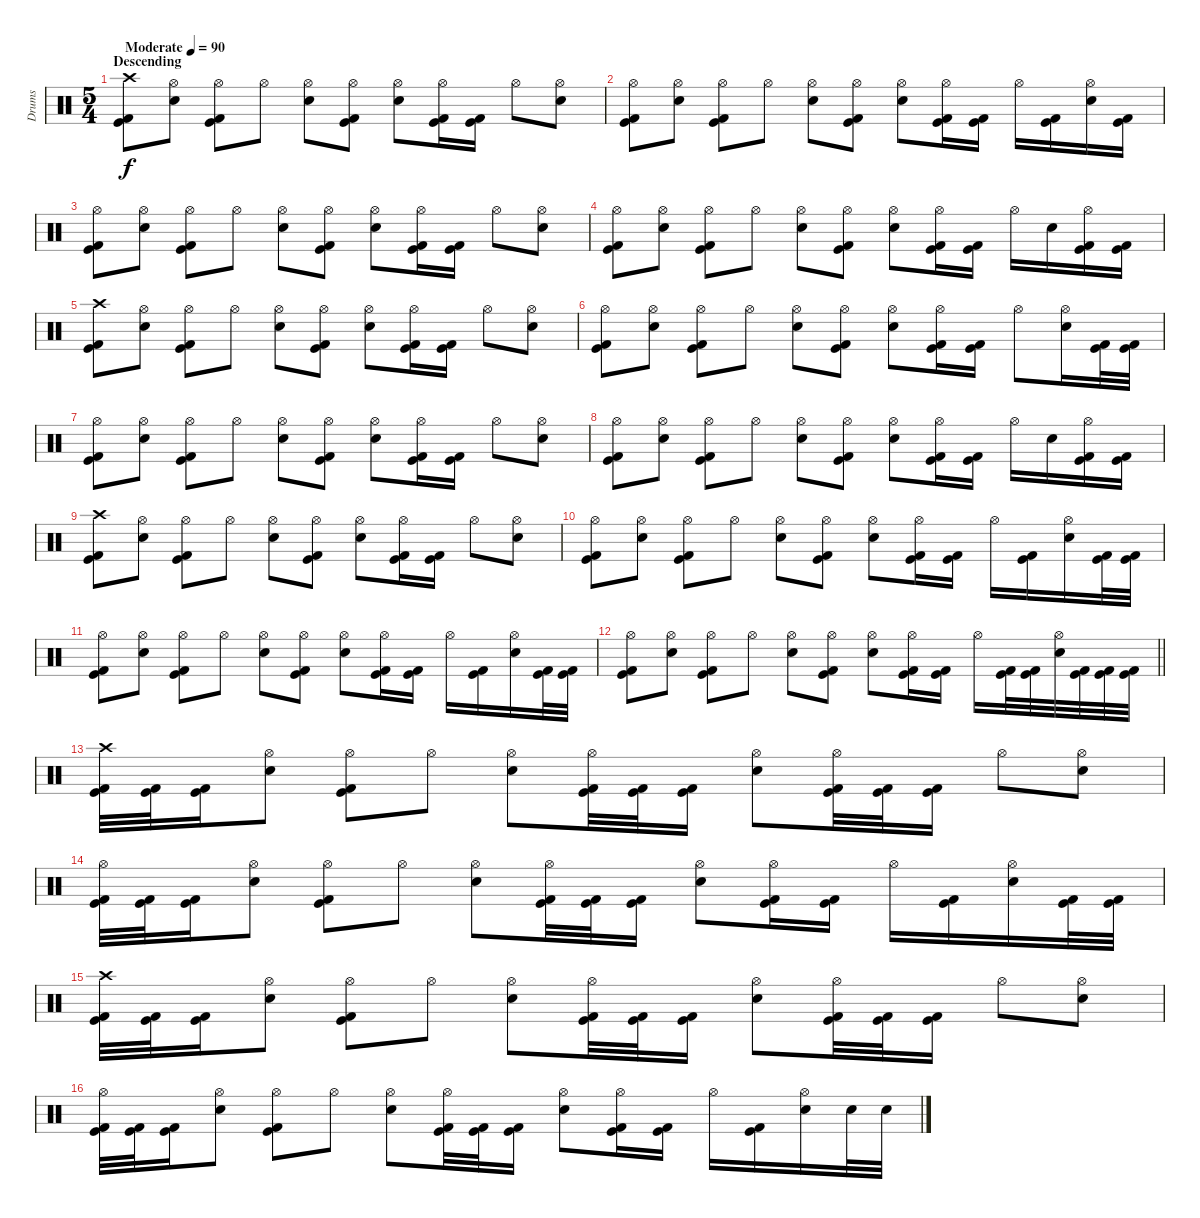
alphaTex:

\track ("Drums" "Drums") {instrument percussion}
\staff {score}
\articulation defaults
\ts (5 4)
\section ("" "Descending")
\tempo (90 "Moderate")
\clef neutral
\ks c
("Crash high (hit)" "Kick (hit) 2" "Kick (hit)").8{dy f} ("Hi-Hat (open)" "Electric Snare (hit)").8 ("Hi-Hat (open)" "Kick (hit) 2" "Kick (hit)").8 "Hi-Hat (open)".8 ("Hi-Hat (open)" "Electric Snare (hit)").8 ("Hi-Hat (open)" "Kick (hit) 2" "Kick (hit)").8 ("Hi-Hat (open)" "Electric Snare (hit)").8 ("Hi-Hat (open)" "Kick (hit) 2" "Kick (hit)").16 ("Kick (hit) 2" "Kick (hit)").16 "Hi-Hat (open)".8 ("Hi-Hat (open)" "Electric Snare (hit)").8 |
("Hi-Hat (open)" "Kick (hit) 2" "Kick (hit)").8 ("Hi-Hat (open)" "Electric Snare (hit)").8 ("Hi-Hat (open)" "Kick (hit) 2" "Kick (hit)").8 "Hi-Hat (open)".8 ("Hi-Hat (open)" "Electric Snare (hit)").8 ("Hi-Hat (open)" "Kick (hit) 2" "Kick (hit)").8 ("Hi-Hat (open)" "Electric Snare (hit)").8 ("Hi-Hat (open)" "Kick (hit) 2" "Kick (hit)").16 ("Kick (hit) 2" "Kick (hit)").16 "Hi-Hat (open)".16 ("Kick (hit) 2" "Kick (hit)").16 ("Hi-Hat (open)" "Electric Snare (hit)").16 ("Kick (hit) 2" "Kick (hit)").16 |
("Hi-Hat (open)" "Kick (hit) 2" "Kick (hit)").8 ("Hi-Hat (open)" "Electric Snare (hit)").8 ("Hi-Hat (open)" "Kick (hit) 2" "Kick (hit)").8 "Hi-Hat (open)".8 ("Hi-Hat (open)" "Electric Snare (hit)").8 ("Hi-Hat (open)" "Kick (hit) 2" "Kick (hit)").8 ("Hi-Hat (open)" "Electric Snare (hit)").8 ("Hi-Hat (open)" "Kick (hit) 2" "Kick (hit)").16 ("Kick (hit) 2" "Kick (hit)").16 "Hi-Hat (open)".8 ("Hi-Hat (open)" "Electric Snare (hit)").8 |
("Hi-Hat (open)" "Kick (hit) 2" "Kick (hit)").8 ("Hi-Hat (open)" "Electric Snare (hit)").8 ("Hi-Hat (open)" "Kick (hit) 2" "Kick (hit)").8 "Hi-Hat (open)".8 ("Hi-Hat (open)" "Electric Snare (hit)").8 ("Hi-Hat (open)" "Kick (hit) 2" "Kick (hit)").8 ("Hi-Hat (open)" "Electric Snare (hit)").8 ("Hi-Hat (open)" "Kick (hit) 2" "Kick (hit)").16 ("Kick (hit) 2" "Kick (hit)").16 "Hi-Hat (open)".16 "Electric Snare (hit)".16 ("Hi-Hat (open)" "Kick (hit) 2" "Kick (hit)").16 ("Kick (hit) 2" "Kick (hit)").16 |
("Crash high (hit)" "Kick (hit) 2" "Kick (hit)").8 ("Hi-Hat (open)" "Electric Snare (hit)").8 ("Hi-Hat (open)" "Kick (hit) 2" "Kick (hit)").8 "Hi-Hat (open)".8 ("Hi-Hat (open)" "Electric Snare (hit)").8 ("Hi-Hat (open)" "Kick (hit) 2" "Kick (hit)").8 ("Hi-Hat (open)" "Electric Snare (hit)").8 ("Hi-Hat (open)" "Kick (hit) 2" "Kick (hit)").16 ("Kick (hit) 2" "Kick (hit)").16 "Hi-Hat (open)".8 ("Hi-Hat (open)" "Electric Snare (hit)").8 |
("Hi-Hat (open)" "Kick (hit) 2" "Kick (hit)").8 ("Hi-Hat (open)" "Electric Snare (hit)").8 ("Hi-Hat (open)" "Kick (hit) 2" "Kick (hit)").8 "Hi-Hat (open)".8 ("Hi-Hat (open)" "Electric Snare (hit)").8 ("Hi-Hat (open)" "Kick (hit) 2" "Kick (hit)").8 ("Hi-Hat (open)" "Electric Snare (hit)").8 ("Hi-Hat (open)" "Kick (hit) 2" "Kick (hit)").16 ("Kick (hit) 2" "Kick (hit)").16 "Hi-Hat (open)".8 ("Hi-Hat (open)" "Electric Snare (hit)").16 ("Kick (hit) 2" "Kick (hit)").32 ("Kick (hit) 2" "Kick (hit)").32 |
("Hi-Hat (open)" "Kick (hit) 2" "Kick (hit)").8 ("Hi-Hat (open)" "Electric Snare (hit)").8 ("Hi-Hat (open)" "Kick (hit) 2" "Kick (hit)").8 "Hi-Hat (open)".8 ("Hi-Hat (open)" "Electric Snare (hit)").8 ("Hi-Hat (open)" "Kick (hit) 2" "Kick (hit)").8 ("Hi-Hat (open)" "Electric Snare (hit)").8 ("Hi-Hat (open)" "Kick (hit) 2" "Kick (hit)").16 ("Kick (hit) 2" "Kick (hit)").16 "Hi-Hat (open)".8 ("Hi-Hat (open)" "Electric Snare (hit)").8 |
("Hi-Hat (open)" "Kick (hit) 2" "Kick (hit)").8 ("Hi-Hat (open)" "Electric Snare (hit)").8 ("Hi-Hat (open)" "Kick (hit) 2" "Kick (hit)").8 "Hi-Hat (open)".8 ("Hi-Hat (open)" "Electric Snare (hit)").8 ("Hi-Hat (open)" "Kick (hit) 2" "Kick (hit)").8 ("Hi-Hat (open)" "Electric Snare (hit)").8 ("Hi-Hat (open)" "Kick (hit) 2" "Kick (hit)").16 ("Kick (hit) 2" "Kick (hit)").16 "Hi-Hat (open)".16 "Electric Snare (hit)".16 ("Hi-Hat (open)" "Kick (hit) 2" "Kick (hit)").16 ("Kick (hit) 2" "Kick (hit)").16 |
("Crash high (hit)" "Kick (hit) 2" "Kick (hit)").8 ("Hi-Hat (open)" "Electric Snare (hit)").8 ("Hi-Hat (open)" "Kick (hit) 2" "Kick (hit)").8 "Hi-Hat (open)".8 ("Hi-Hat (open)" "Electric Snare (hit)").8 ("Hi-Hat (open)" "Kick (hit) 2" "Kick (hit)").8 ("Hi-Hat (open)" "Electric Snare (hit)").8 ("Hi-Hat (open)" "Kick (hit) 2" "Kick (hit)").16 ("Kick (hit) 2" "Kick (hit)").16 "Hi-Hat (open)".8 ("Hi-Hat (open)" "Electric Snare (hit)").8 |
("Hi-Hat (open)" "Kick (hit) 2" "Kick (hit)").8 ("Hi-Hat (open)" "Electric Snare (hit)").8 ("Hi-Hat (open)" "Kick (hit) 2" "Kick (hit)").8 "Hi-Hat (open)".8 ("Hi-Hat (open)" "Electric Snare (hit)").8 ("Hi-Hat (open)" "Kick (hit) 2" "Kick (hit)").8 ("Hi-Hat (open)" "Electric Snare (hit)").8 ("Hi-Hat (open)" "Kick (hit) 2" "Kick (hit)").16 ("Kick (hit) 2" "Kick (hit)").16 "Hi-Hat (open)".16 ("Kick (hit) 2" "Kick (hit)").16 ("Hi-Hat (open)" "Electric Snare (hit)").16 ("Kick (hit) 2" "Kick (hit)").32 ("Kick (hit) 2" "Kick (hit)").32 |
("Hi-Hat (open)" "Kick (hit) 2" "Kick (hit)").8 ("Hi-Hat (open)" "Electric Snare (hit)").8 ("Hi-Hat (open)" "Kick (hit) 2" "Kick (hit)").8 "Hi-Hat (open)".8 ("Hi-Hat (open)" "Electric Snare (hit)").8 ("Hi-Hat (open)" "Kick (hit) 2" "Kick (hit)").8 ("Hi-Hat (open)" "Electric Snare (hit)").8 ("Hi-Hat (open)" "Kick (hit) 2" "Kick (hit)").16 ("Kick (hit) 2" "Kick (hit)").16 "Hi-Hat (open)".16 ("Kick (hit) 2" "Kick (hit)").16 ("Hi-Hat (open)" "Electric Snare (hit)").16 ("Kick (hit) 2" "Kick (hit)").32 ("Kick (hit) 2" "Kick (hit)").32 |
\barLineRight lightlight
("Hi-Hat (open)" "Kick (hit) 2" "Kick (hit)").8 ("Hi-Hat (open)" "Electric Snare (hit)").8 ("Hi-Hat (open)" "Kick (hit) 2" "Kick (hit)").8 "Hi-Hat (open)".8 ("Hi-Hat (open)" "Electric Snare (hit)").8 ("Hi-Hat (open)" "Kick (hit) 2" "Kick (hit)").8 ("Hi-Hat (open)" "Electric Snare (hit)").8 ("Hi-Hat (open)" "Kick (hit) 2" "Kick (hit)").16 ("Kick (hit) 2" "Kick (hit)").16 "Hi-Hat (open)".16 ("Kick (hit) 2" "Kick (hit)").32 ("Kick (hit) 2" "Kick (hit)").32 ("Hi-Hat (open)" "Electric Snare (hit)").32 ("Kick (hit) 2" "Kick (hit)").32 ("Kick (hit) 2" "Kick (hit)").32 ("Kick (hit) 2" "Kick (hit)").32 |
("Crash high (hit)" "Kick (hit) 2" "Kick (hit)").32 ("Kick (hit) 2" "Kick (hit)").32 ("Kick (hit) 2" "Kick (hit)").16 ("Hi-Hat (open)" "Electric Snare (hit)").8 ("Hi-Hat (open)" "Kick (hit) 2" "Kick (hit)").8 "Hi-Hat (open)".8 ("Hi-Hat (open)" "Electric Snare (hit)").8 ("Hi-Hat (open)" "Kick (hit) 2" "Kick (hit)").32 ("Kick (hit) 2" "Kick (hit)").32 ("Kick (hit) 2" "Kick (hit)").16 ("Hi-Hat (open)" "Electric Snare (hit)").8 ("Hi-Hat (open)" "Kick (hit) 2" "Kick (hit)").32 ("Kick (hit) 2" "Kick (hit)").32 ("Kick (hit) 2" "Kick (hit)").16 "Hi-Hat (open)".8 ("Hi-Hat (open)" "Electric Snare (hit)").8 |
("Hi-Hat (open)" "Kick (hit) 2" "Kick (hit)").32 ("Kick (hit) 2" "Kick (hit)").32 ("Kick (hit) 2" "Kick (hit)").16 ("Hi-Hat (open)" "Electric Snare (hit)").8 ("Hi-Hat (open)" "Kick (hit) 2" "Kick (hit)").8 "Hi-Hat (open)".8 ("Hi-Hat (open)" "Electric Snare (hit)").8 ("Hi-Hat (open)" "Kick (hit) 2" "Kick (hit)").32 ("Kick (hit) 2" "Kick (hit)").32 ("Kick (hit) 2" "Kick (hit)").16 ("Hi-Hat (open)" "Electric Snare (hit)").8 ("Hi-Hat (open)" "Kick (hit) 2" "Kick (hit)").16 ("Kick (hit) 2" "Kick (hit)").16 "Hi-Hat (open)".16 ("Kick (hit) 2" "Kick (hit)").16 ("Hi-Hat (open)" "Electric Snare (hit)").16 ("Kick (hit) 2" "Kick (hit)").32 ("Kick (hit) 2" "Kick (hit)").32 |
("Crash high (hit)" "Kick (hit) 2" "Kick (hit)").32 ("Kick (hit) 2" "Kick (hit)").32 ("Kick (hit) 2" "Kick (hit)").16 ("Hi-Hat (open)" "Electric Snare (hit)").8 ("Hi-Hat (open)" "Kick (hit) 2" "Kick (hit)").8 "Hi-Hat (open)".8 ("Hi-Hat (open)" "Electric Snare (hit)").8 ("Hi-Hat (open)" "Kick (hit) 2" "Kick (hit)").32 ("Kick (hit) 2" "Kick (hit)").32 ("Kick (hit) 2" "Kick (hit)").16 ("Hi-Hat (open)" "Electric Snare (hit)").8 ("Hi-Hat (open)" "Kick (hit) 2" "Kick (hit)").32 ("Kick (hit) 2" "Kick (hit)").32 ("Kick (hit) 2" "Kick (hit)").16 "Hi-Hat (open)".8 ("Hi-Hat (open)" "Electric Snare (hit)").8 |
("Hi-Hat (open)" "Kick (hit) 2" "Kick (hit)").32 ("Kick (hit) 2" "Kick (hit)").32 ("Kick (hit) 2" "Kick (hit)").16 ("Hi-Hat (open)" "Electric Snare (hit)").8 ("Hi-Hat (open)" "Kick (hit) 2" "Kick (hit)").8 "Hi-Hat (open)".8 ("Hi-Hat (open)" "Electric Snare (hit)").8 ("Hi-Hat (open)" "Kick (hit) 2" "Kick (hit)").32 ("Kick (hit) 2" "Kick (hit)").32 ("Kick (hit) 2" "Kick (hit)").16 ("Hi-Hat (open)" "Electric Snare (hit)").8 ("Hi-Hat (open)" "Kick (hit) 2" "Kick (hit)").16 ("Kick (hit) 2" "Kick (hit)").16 "Hi-Hat (open)".16 ("Kick (hit) 2" "Kick (hit)").16 ("Hi-Hat (open)" "Electric Snare (hit)").16 "Electric Snare (hit)".32 "Electric Snare (hit)".32
